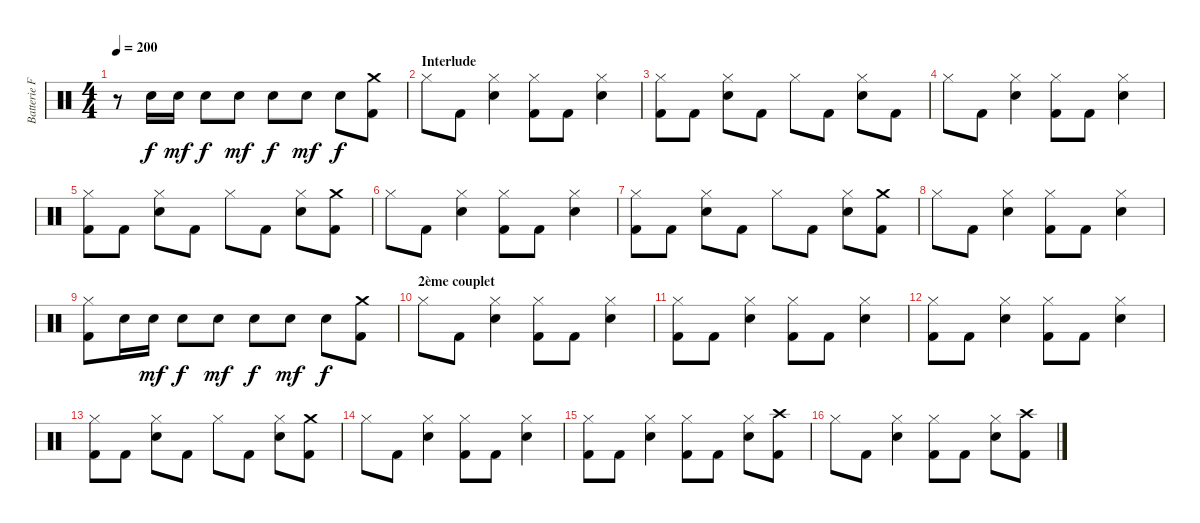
\track ("Batterie Franck" "Batterie F") {instrument percussion}
\staff {score}
\articulation defaults
\ts (4 4)
\tempo 200
\clef neutral
\ks c
r.8{dy f} "Snare (hit) 2".16 "Snare (hit) 2".16{dy mf} "Snare (hit) 2".8{dy f} "Snare (hit) 2".8{dy mf} "Snare (hit) 2".8{dy f} "Snare (hit) 2".8{dy mf} "Snare (hit) 2".8{dy f} ("Crash medium (hit)" "Kick (hit) 2").8 |
\section ("" "Interlude")
"Hi-Hat (closed)".8 "Kick (hit) 2".8 ("Hi-Hat (closed)" "Snare (hit) 2").4 ("Hi-Hat (closed)" "Kick (hit) 2").8 "Kick (hit) 2".8 ("Hi-Hat (closed)" "Snare (hit) 2").4 |
("Hi-Hat (closed)" "Kick (hit) 2").8 "Kick (hit) 2".8 ("Hi-Hat (closed)" "Snare (hit) 2").8 "Kick (hit) 2".8 "Hi-Hat (closed)".8 "Kick (hit) 2".8 ("Hi-Hat (closed)" "Snare (hit) 2").8 "Kick (hit) 2".8 |
"Hi-Hat (closed)".8 "Kick (hit) 2".8 ("Hi-Hat (closed)" "Snare (hit) 2").4 ("Hi-Hat (closed)" "Kick (hit) 2").8 "Kick (hit) 2".8 ("Hi-Hat (closed)" "Snare (hit) 2").4 |
("Hi-Hat (closed)" "Kick (hit) 2").8 "Kick (hit) 2".8 ("Hi-Hat (closed)" "Snare (hit) 2").8 "Kick (hit) 2".8 "Hi-Hat (closed)".8 "Kick (hit) 2".8 ("Hi-Hat (closed)" "Snare (hit) 2").8 ("Crash medium (hit)" "Kick (hit) 2").8 |
"Hi-Hat (closed)".8 "Kick (hit) 2".8 ("Hi-Hat (closed)" "Snare (hit) 2").4 ("Hi-Hat (closed)" "Kick (hit) 2").8 "Kick (hit) 2".8 ("Hi-Hat (closed)" "Snare (hit) 2").4 |
("Hi-Hat (closed)" "Kick (hit) 2").8 "Kick (hit) 2".8 ("Hi-Hat (closed)" "Snare (hit) 2").8 "Kick (hit) 2".8 "Hi-Hat (closed)".8 "Kick (hit) 2".8 ("Hi-Hat (closed)" "Snare (hit) 2").8 ("Crash medium (hit)" "Kick (hit) 2").8 |
"Hi-Hat (closed)".8 "Kick (hit) 2".8 ("Hi-Hat (closed)" "Snare (hit) 2").4 ("Hi-Hat (closed)" "Kick (hit) 2").8 "Kick (hit) 2".8 ("Hi-Hat (closed)" "Snare (hit) 2").4 |
("Hi-Hat (closed)" "Kick (hit) 2").8 "Snare (hit) 2".16 "Snare (hit) 2".16{dy mf} "Snare (hit) 2".8{dy f} "Snare (hit) 2".8{dy mf} "Snare (hit) 2".8{dy f} "Snare (hit) 2".8{dy mf} "Snare (hit) 2".8{dy f} ("Crash medium (hit)" "Kick (hit) 2").8 |
\section ("" "2ème couplet")
"Hi-Hat (closed)".8 "Kick (hit) 2".8 ("Hi-Hat (closed)" "Snare (hit) 2").4 ("Hi-Hat (closed)" "Kick (hit) 2").8 "Kick (hit) 2".8 ("Hi-Hat (closed)" "Snare (hit) 2").4 |
("Hi-Hat (closed)" "Kick (hit) 2").8 "Kick (hit) 2".8 ("Hi-Hat (closed)" "Snare (hit) 2").4 ("Hi-Hat (closed)" "Kick (hit) 2").8 "Kick (hit) 2".8 ("Hi-Hat (closed)" "Snare (hit) 2").4 |
("Hi-Hat (closed)" "Kick (hit) 2").8 "Kick (hit) 2".8 ("Hi-Hat (closed)" "Snare (hit) 2").4 ("Hi-Hat (closed)" "Kick (hit) 2").8 "Kick (hit) 2".8 ("Hi-Hat (closed)" "Snare (hit) 2").4 |
("Hi-Hat (closed)" "Kick (hit) 2").8 "Kick (hit) 2".8 ("Hi-Hat (closed)" "Snare (hit) 2").8 "Kick (hit) 2".8 "Hi-Hat (closed)".8 "Kick (hit) 2".8 ("Hi-Hat (closed)" "Snare (hit) 2").8 ("Crash medium (hit)" "Kick (hit) 2").8 |
"Hi-Hat (closed)".8 "Kick (hit) 2".8 ("Hi-Hat (closed)" "Snare (hit) 2").4 ("Hi-Hat (closed)" "Kick (hit) 2").8 "Kick (hit) 2".8 ("Hi-Hat (closed)" "Snare (hit) 2").4 |
("Hi-Hat (closed)" "Kick (hit) 2").8 "Kick (hit) 2".8 ("Hi-Hat (closed)" "Snare (hit) 2").4 ("Hi-Hat (closed)" "Kick (hit) 2").8 "Kick (hit) 2".8 ("Hi-Hat (closed)" "Snare (hit) 2").8 ("Crash high (hit)" "Kick (hit) 2").8 |
"Hi-Hat (closed)".8 "Kick (hit) 2".8 ("Hi-Hat (closed)" "Snare (hit) 2").4 ("Hi-Hat (closed)" "Kick (hit) 2").8 "Kick (hit) 2".8 ("Hi-Hat (closed)" "Snare (hit) 2").8 ("Crash high (hit)" "Kick (hit) 2").8
